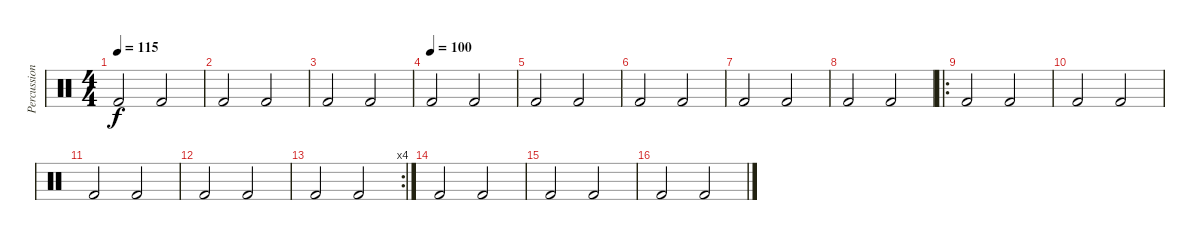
\track ("Percussion" "Percussion") {mute instrument percussion}
\staff {score}
\articulation defaults
\ts (4 4)
\tempo 115
\clef neutral
\ks c "Kick (hit) 2".2{dy f} "Kick (hit) 2".2
|
"Kick (hit) 2".2 "Kick (hit) 2".2 |
"Kick (hit) 2".2 "Kick (hit) 2".2 |
\tempo (100)
"Kick (hit) 2".2 "Kick (hit) 2".2 |
"Kick (hit) 2".2 "Kick (hit) 2".2 |
"Kick (hit) 2".2 "Kick (hit) 2".2 |
"Kick (hit) 2".2 "Kick (hit) 2".2 |
"Kick (hit) 2".2 "Kick (hit) 2".2 |
\ro "Kick (hit) 2".2 "Kick (hit) 2".2
|
"Kick (hit) 2".2 "Kick (hit) 2".2 |
"Kick (hit) 2".2 "Kick (hit) 2".2 |
"Kick (hit) 2".2 "Kick (hit) 2".2 |
\rc 4 "Kick (hit) 2".2 "Kick (hit) 2".2
|
"Kick (hit) 2".2 "Kick (hit) 2".2 |
"Kick (hit) 2".2 "Kick (hit) 2".2 |
"Kick (hit) 2".2 "Kick (hit) 2".2
